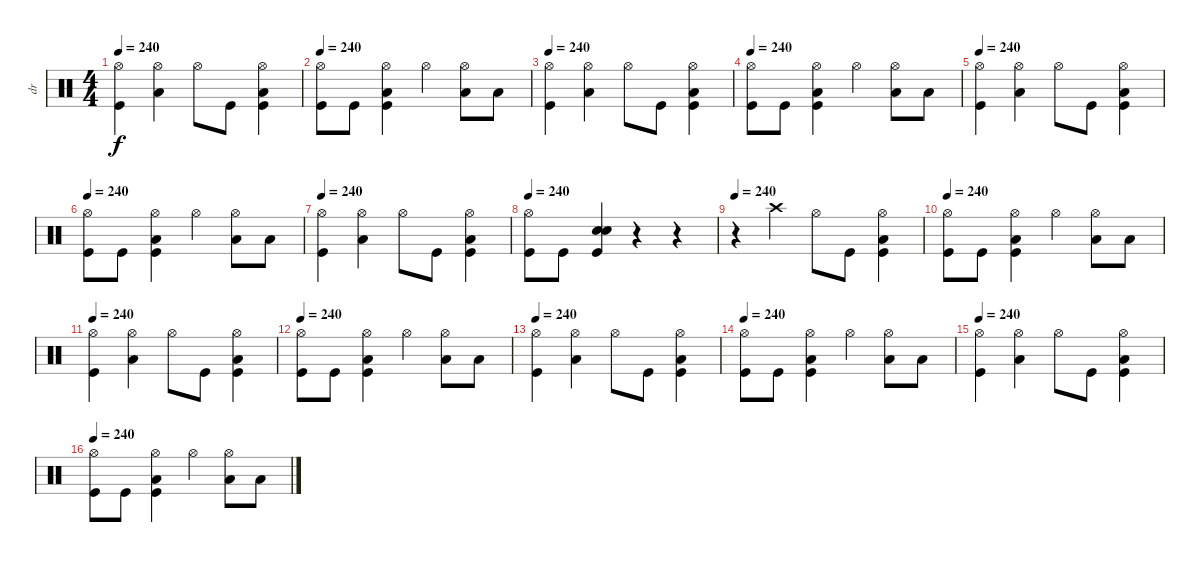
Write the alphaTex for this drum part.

\track ("dr" "dr") {instrument percussion}
\staff {score}
\articulation defaults
\ts (4 4)
\tempo 240
\clef neutral
\ks c
("Hi-Hat (open)" "Kick (hit)").4{dy f} ("Hi-Hat (open)" "Low Floor Tom (hit)").4 "Hi-Hat (open)".8 "Kick (hit)".8 ("Hi-Hat (open)" "Low Floor Tom (hit)" "Kick (hit)").4 |
\tempo 240
("Hi-Hat (open)" "Kick (hit)").8 "Kick (hit)".8 ("Hi-Hat (open)" "Low Floor Tom (hit)" "Kick (hit)").4 "Hi-Hat (open)".4 ("Hi-Hat (open)" "Low Floor Tom (hit)").8 "Low Floor Tom (hit)".8 |
\tempo 240
("Hi-Hat (open)" "Kick (hit)").4 ("Hi-Hat (open)" "Low Floor Tom (hit)").4 "Hi-Hat (open)".8 "Kick (hit)".8 ("Hi-Hat (open)" "Low Floor Tom (hit)" "Kick (hit)").4 |
\tempo 240
("Hi-Hat (open)" "Kick (hit)").8 "Kick (hit)".8 ("Hi-Hat (open)" "Low Floor Tom (hit)" "Kick (hit)").4 "Hi-Hat (open)".4 ("Hi-Hat (open)" "Low Floor Tom (hit)").8 "Low Floor Tom (hit)".8 |
\tempo 240
("Hi-Hat (open)" "Kick (hit)").4 ("Hi-Hat (open)" "Low Floor Tom (hit)").4 "Hi-Hat (open)".8 "Kick (hit)".8 ("Hi-Hat (open)" "Low Floor Tom (hit)" "Kick (hit)").4 |
\tempo 240
("Hi-Hat (open)" "Kick (hit)").8 "Kick (hit)".8 ("Hi-Hat (open)" "Low Floor Tom (hit)" "Kick (hit)").4 "Hi-Hat (open)".4 ("Hi-Hat (open)" "Low Floor Tom (hit)").8 "Low Floor Tom (hit)".8 |
\tempo 240
("Hi-Hat (open)" "Kick (hit)").4 ("Hi-Hat (open)" "Low Floor Tom (hit)").4 "Hi-Hat (open)".8 "Kick (hit)".8 ("Hi-Hat (open)" "Low Floor Tom (hit)" "Kick (hit)").4 |
\tempo 240
("Hi-Hat (open)" "Kick (hit)").8 "Kick (hit)".8 ("Electric Snare (hit)" "Snare (hit) 2" "Kick (hit)").4 r.4 r.4 |
\tempo 240
r.4 "Crash high (hit)".4 "Hi-Hat (open)".8 "Kick (hit)".8 ("Hi-Hat (open)" "Low Floor Tom (hit)" "Kick (hit)").4 |
\tempo 240
("Hi-Hat (open)" "Kick (hit)").8 "Kick (hit)".8 ("Hi-Hat (open)" "Low Floor Tom (hit)" "Kick (hit)").4 "Hi-Hat (open)".4 ("Hi-Hat (open)" "Low Floor Tom (hit)").8 "Low Floor Tom (hit)".8 |
\tempo 240
("Hi-Hat (open)" "Kick (hit)").4 ("Hi-Hat (open)" "Low Floor Tom (hit)").4 "Hi-Hat (open)".8 "Kick (hit)".8 ("Hi-Hat (open)" "Low Floor Tom (hit)" "Kick (hit)").4 |
\tempo 240
("Hi-Hat (open)" "Kick (hit)").8 "Kick (hit)".8 ("Hi-Hat (open)" "Low Floor Tom (hit)" "Kick (hit)").4 "Hi-Hat (open)".4 ("Hi-Hat (open)" "Low Floor Tom (hit)").8 "Low Floor Tom (hit)".8 |
\tempo 240
("Hi-Hat (open)" "Kick (hit)").4 ("Hi-Hat (open)" "Low Floor Tom (hit)").4 "Hi-Hat (open)".8 "Kick (hit)".8 ("Hi-Hat (open)" "Low Floor Tom (hit)" "Kick (hit)").4 |
\tempo 240
("Hi-Hat (open)" "Kick (hit)").8 "Kick (hit)".8 ("Hi-Hat (open)" "Low Floor Tom (hit)" "Kick (hit)").4 "Hi-Hat (open)".4 ("Hi-Hat (open)" "Low Floor Tom (hit)").8 "Low Floor Tom (hit)".8 |
\tempo 240
("Hi-Hat (open)" "Kick (hit)").4 ("Hi-Hat (open)" "Low Floor Tom (hit)").4 "Hi-Hat (open)".8 "Kick (hit)".8 ("Hi-Hat (open)" "Low Floor Tom (hit)" "Kick (hit)").4 |
\tempo 240
("Hi-Hat (open)" "Kick (hit)").8 "Kick (hit)".8 ("Hi-Hat (open)" "Low Floor Tom (hit)" "Kick (hit)").4 "Hi-Hat (open)".4 ("Hi-Hat (open)" "Low Floor Tom (hit)").8 "Low Floor Tom (hit)".8
